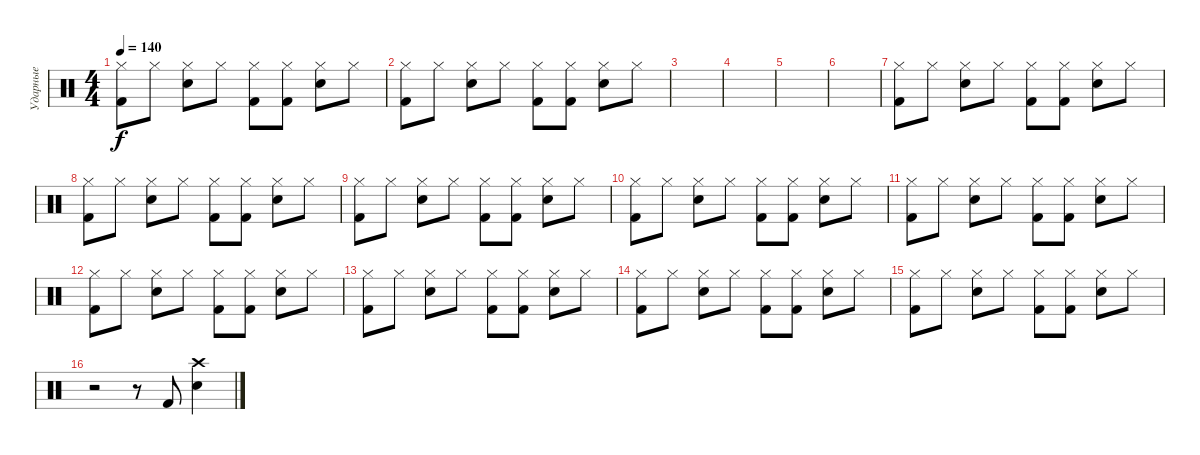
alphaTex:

\track ("Ударные" "Ударные") {instrument percussion}
\staff {score}
\articulation defaults
\ts (4 4)
\tempo 140
\clef neutral
\ks c
("Hi-Hat (closed)" "Kick (hit) 2").8{dy f} "Hi-Hat (closed)".8 ("Hi-Hat (closed)" "Snare (hit) 2").8 "Hi-Hat (closed)".8 ("Kick (hit) 2" "Hi-Hat (closed)").8 ("Kick (hit) 2" "Hi-Hat (closed)").8 ("Snare (hit) 2" "Hi-Hat (closed)").8 "Hi-Hat (closed)".8 |
("Hi-Hat (closed)" "Kick (hit) 2").8 "Hi-Hat (closed)".8 ("Hi-Hat (closed)" "Snare (hit) 2").8 "Hi-Hat (closed)".8 ("Kick (hit) 2" "Hi-Hat (closed)").8 ("Kick (hit) 2" "Hi-Hat (closed)").8 ("Snare (hit) 2" "Hi-Hat (closed)").8 "Hi-Hat (closed)".8 |
|
|
|
|
("Hi-Hat (closed)" "Kick (hit) 2").8 "Hi-Hat (closed)".8 ("Hi-Hat (closed)" "Snare (hit) 2").8 "Hi-Hat (closed)".8 ("Kick (hit) 2" "Hi-Hat (closed)").8 ("Kick (hit) 2" "Hi-Hat (closed)").8 ("Snare (hit) 2" "Hi-Hat (closed)").8 "Hi-Hat (closed)".8 |
("Hi-Hat (closed)" "Kick (hit) 2").8 "Hi-Hat (closed)".8 ("Hi-Hat (closed)" "Snare (hit) 2").8 "Hi-Hat (closed)".8 ("Kick (hit) 2" "Hi-Hat (closed)").8 ("Kick (hit) 2" "Hi-Hat (closed)").8 ("Snare (hit) 2" "Hi-Hat (closed)").8 "Hi-Hat (closed)".8 |
("Hi-Hat (closed)" "Kick (hit) 2").8 "Hi-Hat (closed)".8 ("Hi-Hat (closed)" "Snare (hit) 2").8 "Hi-Hat (closed)".8 ("Kick (hit) 2" "Hi-Hat (closed)").8 ("Kick (hit) 2" "Hi-Hat (closed)").8 ("Snare (hit) 2" "Hi-Hat (closed)").8 "Hi-Hat (closed)".8 |
("Hi-Hat (closed)" "Kick (hit) 2").8 "Hi-Hat (closed)".8 ("Hi-Hat (closed)" "Snare (hit) 2").8 "Hi-Hat (closed)".8 ("Kick (hit) 2" "Hi-Hat (closed)").8 ("Kick (hit) 2" "Hi-Hat (closed)").8 ("Snare (hit) 2" "Hi-Hat (closed)").8 "Hi-Hat (closed)".8 |
("Hi-Hat (closed)" "Kick (hit) 2").8 "Hi-Hat (closed)".8 ("Hi-Hat (closed)" "Snare (hit) 2").8 "Hi-Hat (closed)".8 ("Kick (hit) 2" "Hi-Hat (closed)").8 ("Kick (hit) 2" "Hi-Hat (closed)").8 ("Snare (hit) 2" "Hi-Hat (closed)").8 "Hi-Hat (closed)".8 |
("Hi-Hat (closed)" "Kick (hit) 2").8 "Hi-Hat (closed)".8 ("Hi-Hat (closed)" "Snare (hit) 2").8 "Hi-Hat (closed)".8 ("Kick (hit) 2" "Hi-Hat (closed)").8 ("Kick (hit) 2" "Hi-Hat (closed)").8 ("Snare (hit) 2" "Hi-Hat (closed)").8 "Hi-Hat (closed)".8 |
("Hi-Hat (closed)" "Kick (hit) 2").8 "Hi-Hat (closed)".8 ("Hi-Hat (closed)" "Snare (hit) 2").8 "Hi-Hat (closed)".8 ("Kick (hit) 2" "Hi-Hat (closed)").8 ("Kick (hit) 2" "Hi-Hat (closed)").8 ("Snare (hit) 2" "Hi-Hat (closed)").8 "Hi-Hat (closed)".8 |
("Hi-Hat (closed)" "Kick (hit) 2").8 "Hi-Hat (closed)".8 ("Hi-Hat (closed)" "Snare (hit) 2").8 "Hi-Hat (closed)".8 ("Kick (hit) 2" "Hi-Hat (closed)").8 ("Kick (hit) 2" "Hi-Hat (closed)").8 ("Snare (hit) 2" "Hi-Hat (closed)").8 "Hi-Hat (closed)".8 |
("Hi-Hat (closed)" "Kick (hit) 2").8 "Hi-Hat (closed)".8 ("Hi-Hat (closed)" "Snare (hit) 2").8 "Hi-Hat (closed)".8 ("Kick (hit) 2" "Hi-Hat (closed)").8 ("Kick (hit) 2" "Hi-Hat (closed)").8 ("Snare (hit) 2" "Hi-Hat (closed)").8 "Hi-Hat (closed)".8 |
r.2 r.8 "Kick (hit) 2".8 ("Crash high (hit)" "Snare (hit) 2").4
